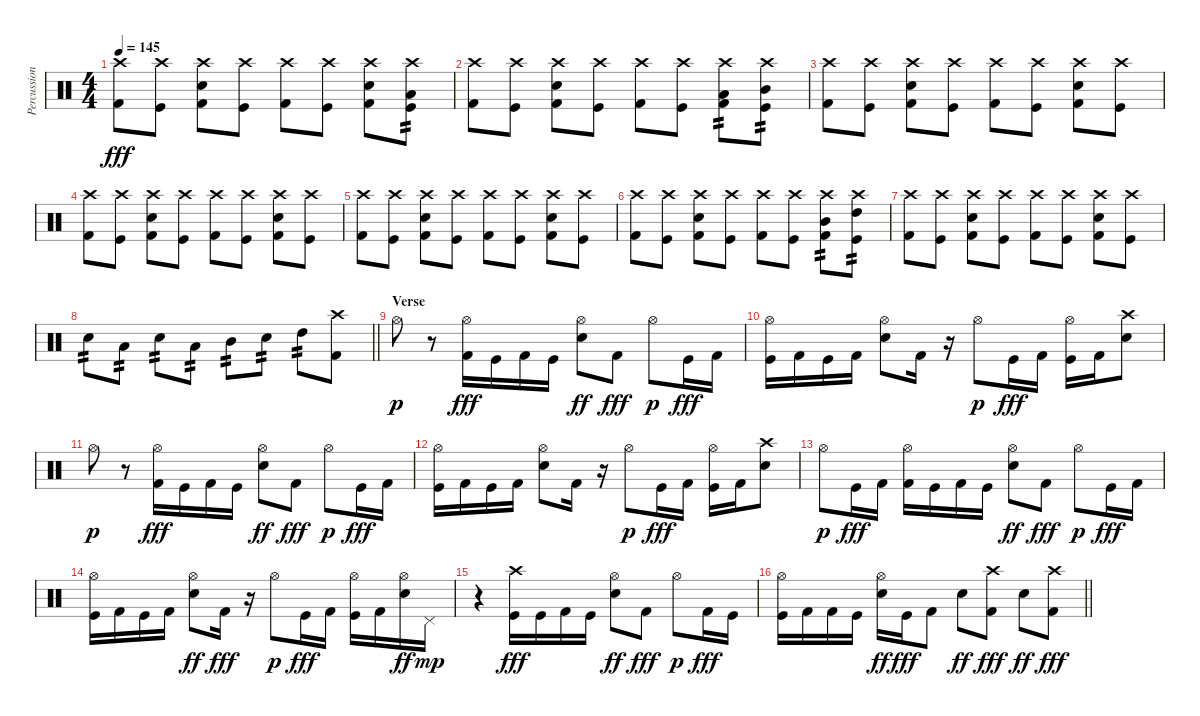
\track ("Percussion" "Percussion") {instrument percussion}
\staff {score}
\articulation defaults
\ts (4 4)
\tempo 145
\clef neutral
\ks c
("Crash high (hit)" "Kick (hit) 2").8{dy fff} ("Crash high (hit)" "Kick (hit)").8 ("Crash high (hit)" "Snare (hit) 2" "Kick (hit) 2").8 ("Crash high (hit)" "Kick (hit)").8 ("Crash high (hit)" "Kick (hit) 2").8 ("Crash high (hit)" "Kick (hit)").8 ("Crash high (hit)" "Snare (hit) 2" "Kick (hit) 2").8 ("Crash high (hit)" "Low Tom (hit)" "Kick (hit)").8{tp 2} |
("Crash high (hit)" "Kick (hit) 2").8 ("Crash high (hit)" "Kick (hit)").8 ("Crash high (hit)" "Snare (hit) 2" "Kick (hit) 2").8 ("Crash high (hit)" "Kick (hit)").8 ("Crash high (hit)" "Kick (hit) 2").8 ("Crash high (hit)" "Kick (hit)").8 ("Crash high (hit)" "Low Tom (hit)" "Kick (hit) 2").8{tp 2} ("Crash high (hit)" "Mid Tom (hit)" "Kick (hit)").8{tp 2} |
("Crash high (hit)" "Kick (hit) 2").8 ("Crash high (hit)" "Kick (hit)").8 ("Crash high (hit)" "Snare (hit) 2" "Kick (hit) 2").8 ("Crash high (hit)" "Kick (hit)").8 ("Crash high (hit)" "Kick (hit) 2").8 ("Crash high (hit)" "Kick (hit)").8 ("Crash high (hit)" "Snare (hit) 2" "Kick (hit) 2").8 ("Crash high (hit)" "Kick (hit)").8 |
("Crash high (hit)" "Kick (hit) 2").8 ("Crash high (hit)" "Kick (hit)").8 ("Crash high (hit)" "Snare (hit) 2" "Kick (hit) 2").8 ("Crash high (hit)" "Kick (hit)").8 ("Crash high (hit)" "Kick (hit) 2").8 ("Crash high (hit)" "Kick (hit)").8 ("Crash high (hit)" "Snare (hit) 2" "Kick (hit) 2").8 ("Crash high (hit)" "Kick (hit)").8 |
("Crash high (hit)" "Kick (hit) 2").8 ("Crash high (hit)" "Kick (hit)").8 ("Crash high (hit)" "Snare (hit) 2" "Kick (hit) 2").8 ("Crash high (hit)" "Kick (hit)").8 ("Crash high (hit)" "Kick (hit) 2").8 ("Crash high (hit)" "Kick (hit)").8 ("Crash high (hit)" "Snare (hit) 2" "Kick (hit) 2").8 ("Crash high (hit)" "Kick (hit)").8 |
("Crash high (hit)" "Kick (hit) 2").8 ("Crash high (hit)" "Kick (hit)").8 ("Crash high (hit)" "Snare (hit) 2" "Kick (hit) 2").8 ("Crash high (hit)" "Kick (hit)").8 ("Crash high (hit)" "Kick (hit) 2").8 ("Crash high (hit)" "Kick (hit)").8 ("Crash high (hit)" "Mid Tom (hit)" "Kick (hit) 2").8{tp 2} ("Crash high (hit)" "High Tom (hit)" "Kick (hit)").8{tp 2} |
("Crash high (hit)" "Kick (hit) 2").8 ("Crash high (hit)" "Kick (hit)").8 ("Crash high (hit)" "Snare (hit) 2" "Kick (hit) 2").8 ("Crash high (hit)" "Kick (hit)").8 ("Crash high (hit)" "Kick (hit) 2").8 ("Crash high (hit)" "Kick (hit)").8 ("Crash high (hit)" "Snare (hit) 2" "Kick (hit) 2").8 ("Crash high (hit)" "Kick (hit)").8 |
\barLineRight lightlight "Snare (hit) 2".8{tp 2} "Low Tom (hit)".8{tp 2} "Snare (hit) 2".8{tp 2} "Low Tom (hit)".8{tp 2} "Mid Tom (hit)".8{tp 2} "Snare (hit) 2".8{tp 2} "High Tom (hit)".8{tp 2}
("Crash high (hit)" "Kick (hit) 2").8 |
\section ("" "Verse")
"Hi-Hat (open)".8{dy p} r.8 ("Hi-Hat (open)" "Kick (hit) 2").16{dy fff} "Kick (hit)".16 "Kick (hit) 2".16 "Kick (hit)".16 ("Hi-Hat (open)" "Snare (hit) 2").8{dy ff} "Kick (hit) 2".8{dy fff} "Hi-Hat (open)".8{dy p} "Kick (hit)".16{dy fff} "Kick (hit) 2".16 |
("Hi-Hat (open)" "Kick (hit)").16 "Kick (hit) 2".16 "Kick (hit)".16 "Kick (hit) 2".16 ("Hi-Hat (open)" "Snare (hit) 2").8 "Kick (hit) 2".16 r.16 "Hi-Hat (open)".8{dy p} "Kick (hit)".16{dy fff} "Kick (hit) 2".16 ("Hi-Hat (open)" "Kick (hit)").16 "Kick (hit) 2".16 ("Crash high (hit)" "Snare (hit) 2").8 |
"Hi-Hat (open)".8{dy p} r.8 ("Hi-Hat (open)" "Kick (hit) 2").16{dy fff} "Kick (hit)".16 "Kick (hit) 2".16 "Kick (hit)".16 ("Hi-Hat (open)" "Snare (hit) 2").8{dy ff} "Kick (hit) 2".8{dy fff} "Hi-Hat (open)".8{dy p} "Kick (hit)".16{dy fff} "Kick (hit) 2".16 |
("Hi-Hat (open)" "Kick (hit)").16 "Kick (hit) 2".16 "Kick (hit)".16 "Kick (hit) 2".16 ("Hi-Hat (open)" "Snare (hit) 2").8 "Kick (hit) 2".16 r.16 "Hi-Hat (open)".8{dy p} "Kick (hit)".16{dy fff} "Kick (hit) 2".16 ("Hi-Hat (open)" "Kick (hit)").16 "Kick (hit) 2".16 ("Crash high (hit)" "Snare (hit) 2").8 |
"Hi-Hat (open)".8{dy p} "Kick (hit)".16{dy fff} "Kick (hit) 2".16 ("Hi-Hat (open)" "Kick (hit) 2").16 "Kick (hit)".16 "Kick (hit) 2".16 "Kick (hit)".16 ("Hi-Hat (open)" "Snare (hit) 2").8{dy ff} "Kick (hit) 2".8{dy fff} "Hi-Hat (open)".8{dy p} "Kick (hit)".16{dy fff} "Kick (hit) 2".16 |
("Hi-Hat (open)" "Kick (hit)").16 "Kick (hit) 2".16 "Kick (hit)".16 "Kick (hit) 2".16 ("Hi-Hat (open)" "Snare (hit) 2").8{dy ff} "Kick (hit) 2".16{dy fff} r.16 "Hi-Hat (open)".8{dy p} "Kick (hit)".16{dy fff} "Kick (hit) 2".16 ("Hi-Hat (open)" "Kick (hit)").16 "Kick (hit) 2".16 ("Hi-Hat (open)" "Snare (hit) 2").16{dy ff} "Pedal Hi-Hat (hit)".16{dy mp} |
r.4 ("Crash high (hit)" "Kick (hit)").16{dy fff} "Kick (hit)".16 "Kick (hit) 2".16 "Kick (hit)".16 ("Hi-Hat (open)" "Snare (hit) 2").8{dy ff} "Kick (hit) 2".8{dy fff} "Hi-Hat (open)".8{dy p} "Kick (hit) 2".16{dy fff} "Kick (hit)".16 |
\barLineRight lightlight
("Hi-Hat (open)" "Kick (hit)").16 "Kick (hit) 2".16 "Kick (hit) 2".16 "Kick (hit)".16 ("Hi-Hat (open)" "Snare (hit) 2").16{dy ff} "Kick (hit)".16{dy fff} "Kick (hit) 2".8 "Snare (hit) 2".8{dy ff} ("Crash high (hit)" "Kick (hit) 2").8{dy fff} "Snare (hit) 2".8{dy ff} ("Crash high (hit)" "Kick (hit) 2").8{dy fff}
